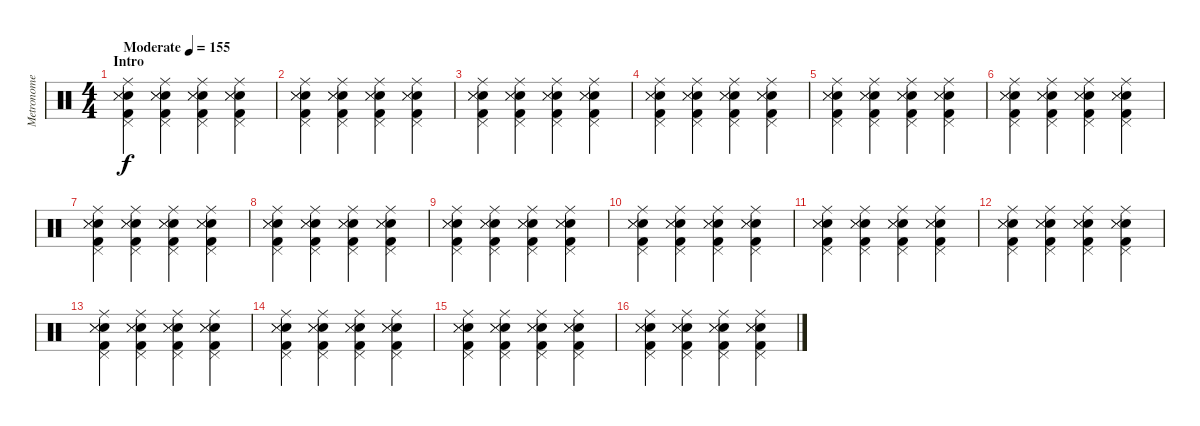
\track ("Metronome" "Metronome") {mute instrument percussion}
\staff {score}
\articulation defaults
\ts (4 4)
\section ("" "Intro")
\tempo (155 "Moderate")
\clef neutral
\ks c
("Ride (middle)" "Pedal Hi-Hat (hit)" "Electric Snare (hit)" "Snare (side stick) 3" "Metronome (hit)" "Kick (hit) 2").4{dy f} ("Ride (middle)" "Pedal Hi-Hat (hit)" "Electric Snare (hit)" "Snare (side stick) 3" "Metronome (hit)" "Kick (hit) 2").4 ("Ride (middle)" "Pedal Hi-Hat (hit)" "Electric Snare (hit)" "Snare (side stick) 3" "Metronome (hit)" "Kick (hit) 2").4 ("Ride (middle)" "Pedal Hi-Hat (hit)" "Electric Snare (hit)" "Snare (side stick) 3" "Metronome (hit)" "Kick (hit) 2").4 |
("Ride (middle)" "Pedal Hi-Hat (hit)" "Electric Snare (hit)" "Snare (side stick) 3" "Metronome (hit)" "Kick (hit) 2").4 ("Ride (middle)" "Pedal Hi-Hat (hit)" "Electric Snare (hit)" "Snare (side stick) 3" "Metronome (hit)" "Kick (hit) 2").4 ("Ride (middle)" "Pedal Hi-Hat (hit)" "Electric Snare (hit)" "Snare (side stick) 3" "Metronome (hit)" "Kick (hit) 2").4 ("Ride (middle)" "Pedal Hi-Hat (hit)" "Electric Snare (hit)" "Snare (side stick) 3" "Metronome (hit)" "Kick (hit) 2").4 |
("Ride (middle)" "Pedal Hi-Hat (hit)" "Electric Snare (hit)" "Snare (side stick) 3" "Metronome (hit)" "Kick (hit) 2").4 ("Ride (middle)" "Pedal Hi-Hat (hit)" "Electric Snare (hit)" "Snare (side stick) 3" "Metronome (hit)" "Kick (hit) 2").4 ("Ride (middle)" "Pedal Hi-Hat (hit)" "Electric Snare (hit)" "Snare (side stick) 3" "Metronome (hit)" "Kick (hit) 2").4 ("Ride (middle)" "Pedal Hi-Hat (hit)" "Electric Snare (hit)" "Snare (side stick) 3" "Metronome (hit)" "Kick (hit) 2").4 |
("Ride (middle)" "Pedal Hi-Hat (hit)" "Electric Snare (hit)" "Snare (side stick) 3" "Metronome (hit)" "Kick (hit) 2").4 ("Ride (middle)" "Pedal Hi-Hat (hit)" "Electric Snare (hit)" "Snare (side stick) 3" "Metronome (hit)" "Kick (hit) 2").4 ("Ride (middle)" "Pedal Hi-Hat (hit)" "Electric Snare (hit)" "Snare (side stick) 3" "Metronome (hit)" "Kick (hit) 2").4 ("Ride (middle)" "Pedal Hi-Hat (hit)" "Electric Snare (hit)" "Snare (side stick) 3" "Metronome (hit)" "Kick (hit) 2").4 |
("Ride (middle)" "Pedal Hi-Hat (hit)" "Electric Snare (hit)" "Snare (side stick) 3" "Metronome (hit)" "Kick (hit) 2").4 ("Ride (middle)" "Pedal Hi-Hat (hit)" "Electric Snare (hit)" "Snare (side stick) 3" "Metronome (hit)" "Kick (hit) 2").4 ("Ride (middle)" "Pedal Hi-Hat (hit)" "Electric Snare (hit)" "Snare (side stick) 3" "Metronome (hit)" "Kick (hit) 2").4 ("Ride (middle)" "Pedal Hi-Hat (hit)" "Electric Snare (hit)" "Snare (side stick) 3" "Metronome (hit)" "Kick (hit) 2").4 |
("Ride (middle)" "Pedal Hi-Hat (hit)" "Electric Snare (hit)" "Snare (side stick) 3" "Metronome (hit)" "Kick (hit) 2").4 ("Ride (middle)" "Pedal Hi-Hat (hit)" "Electric Snare (hit)" "Snare (side stick) 3" "Metronome (hit)" "Kick (hit) 2").4 ("Ride (middle)" "Pedal Hi-Hat (hit)" "Electric Snare (hit)" "Snare (side stick) 3" "Metronome (hit)" "Kick (hit) 2").4 ("Ride (middle)" "Pedal Hi-Hat (hit)" "Electric Snare (hit)" "Snare (side stick) 3" "Metronome (hit)" "Kick (hit) 2").4 |
("Ride (middle)" "Pedal Hi-Hat (hit)" "Electric Snare (hit)" "Snare (side stick) 3" "Metronome (hit)" "Kick (hit) 2").4 ("Ride (middle)" "Pedal Hi-Hat (hit)" "Electric Snare (hit)" "Snare (side stick) 3" "Metronome (hit)" "Kick (hit) 2").4 ("Ride (middle)" "Pedal Hi-Hat (hit)" "Electric Snare (hit)" "Snare (side stick) 3" "Metronome (hit)" "Kick (hit) 2").4 ("Ride (middle)" "Pedal Hi-Hat (hit)" "Electric Snare (hit)" "Snare (side stick) 3" "Metronome (hit)" "Kick (hit) 2").4 |
("Ride (middle)" "Pedal Hi-Hat (hit)" "Electric Snare (hit)" "Snare (side stick) 3" "Metronome (hit)" "Kick (hit) 2").4 ("Ride (middle)" "Pedal Hi-Hat (hit)" "Electric Snare (hit)" "Snare (side stick) 3" "Metronome (hit)" "Kick (hit) 2").4 ("Ride (middle)" "Pedal Hi-Hat (hit)" "Electric Snare (hit)" "Snare (side stick) 3" "Metronome (hit)" "Kick (hit) 2").4 ("Ride (middle)" "Pedal Hi-Hat (hit)" "Electric Snare (hit)" "Snare (side stick) 3" "Metronome (hit)" "Kick (hit) 2").4 |
("Ride (middle)" "Pedal Hi-Hat (hit)" "Electric Snare (hit)" "Snare (side stick) 3" "Metronome (hit)" "Kick (hit) 2").4 ("Ride (middle)" "Pedal Hi-Hat (hit)" "Electric Snare (hit)" "Snare (side stick) 3" "Metronome (hit)" "Kick (hit) 2").4 ("Ride (middle)" "Pedal Hi-Hat (hit)" "Electric Snare (hit)" "Snare (side stick) 3" "Metronome (hit)" "Kick (hit) 2").4 ("Ride (middle)" "Pedal Hi-Hat (hit)" "Electric Snare (hit)" "Snare (side stick) 3" "Metronome (hit)" "Kick (hit) 2").4 |
("Ride (middle)" "Pedal Hi-Hat (hit)" "Electric Snare (hit)" "Snare (side stick) 3" "Metronome (hit)" "Kick (hit) 2").4 ("Ride (middle)" "Pedal Hi-Hat (hit)" "Electric Snare (hit)" "Snare (side stick) 3" "Metronome (hit)" "Kick (hit) 2").4 ("Ride (middle)" "Pedal Hi-Hat (hit)" "Electric Snare (hit)" "Snare (side stick) 3" "Metronome (hit)" "Kick (hit) 2").4 ("Ride (middle)" "Pedal Hi-Hat (hit)" "Electric Snare (hit)" "Snare (side stick) 3" "Metronome (hit)" "Kick (hit) 2").4 |
("Ride (middle)" "Pedal Hi-Hat (hit)" "Electric Snare (hit)" "Snare (side stick) 3" "Metronome (hit)" "Kick (hit) 2").4 ("Ride (middle)" "Pedal Hi-Hat (hit)" "Electric Snare (hit)" "Snare (side stick) 3" "Metronome (hit)" "Kick (hit) 2").4 ("Ride (middle)" "Pedal Hi-Hat (hit)" "Electric Snare (hit)" "Snare (side stick) 3" "Metronome (hit)" "Kick (hit) 2").4 ("Ride (middle)" "Pedal Hi-Hat (hit)" "Electric Snare (hit)" "Snare (side stick) 3" "Metronome (hit)" "Kick (hit) 2").4 |
("Ride (middle)" "Pedal Hi-Hat (hit)" "Electric Snare (hit)" "Snare (side stick) 3" "Metronome (hit)" "Kick (hit) 2").4 ("Ride (middle)" "Pedal Hi-Hat (hit)" "Electric Snare (hit)" "Snare (side stick) 3" "Metronome (hit)" "Kick (hit) 2").4 ("Ride (middle)" "Pedal Hi-Hat (hit)" "Electric Snare (hit)" "Snare (side stick) 3" "Metronome (hit)" "Kick (hit) 2").4 ("Ride (middle)" "Pedal Hi-Hat (hit)" "Electric Snare (hit)" "Snare (side stick) 3" "Metronome (hit)" "Kick (hit) 2").4 |
("Ride (middle)" "Pedal Hi-Hat (hit)" "Electric Snare (hit)" "Snare (side stick) 3" "Metronome (hit)" "Kick (hit) 2").4 ("Ride (middle)" "Pedal Hi-Hat (hit)" "Electric Snare (hit)" "Snare (side stick) 3" "Metronome (hit)" "Kick (hit) 2").4 ("Ride (middle)" "Pedal Hi-Hat (hit)" "Electric Snare (hit)" "Snare (side stick) 3" "Metronome (hit)" "Kick (hit) 2").4 ("Ride (middle)" "Pedal Hi-Hat (hit)" "Electric Snare (hit)" "Snare (side stick) 3" "Metronome (hit)" "Kick (hit) 2").4 |
("Ride (middle)" "Pedal Hi-Hat (hit)" "Electric Snare (hit)" "Snare (side stick) 3" "Metronome (hit)" "Kick (hit) 2").4 ("Ride (middle)" "Pedal Hi-Hat (hit)" "Electric Snare (hit)" "Snare (side stick) 3" "Metronome (hit)" "Kick (hit) 2").4 ("Ride (middle)" "Pedal Hi-Hat (hit)" "Electric Snare (hit)" "Snare (side stick) 3" "Metronome (hit)" "Kick (hit) 2").4 ("Ride (middle)" "Pedal Hi-Hat (hit)" "Electric Snare (hit)" "Snare (side stick) 3" "Metronome (hit)" "Kick (hit) 2").4 |
("Ride (middle)" "Pedal Hi-Hat (hit)" "Electric Snare (hit)" "Snare (side stick) 3" "Metronome (hit)" "Kick (hit) 2").4 ("Ride (middle)" "Pedal Hi-Hat (hit)" "Electric Snare (hit)" "Snare (side stick) 3" "Metronome (hit)" "Kick (hit) 2").4 ("Ride (middle)" "Pedal Hi-Hat (hit)" "Electric Snare (hit)" "Snare (side stick) 3" "Metronome (hit)" "Kick (hit) 2").4 ("Ride (middle)" "Pedal Hi-Hat (hit)" "Electric Snare (hit)" "Snare (side stick) 3" "Metronome (hit)" "Kick (hit) 2").4 |
("Ride (middle)" "Pedal Hi-Hat (hit)" "Electric Snare (hit)" "Snare (side stick) 3" "Metronome (hit)" "Kick (hit) 2").4 ("Ride (middle)" "Pedal Hi-Hat (hit)" "Electric Snare (hit)" "Snare (side stick) 3" "Metronome (hit)" "Kick (hit) 2").4 ("Ride (middle)" "Pedal Hi-Hat (hit)" "Electric Snare (hit)" "Snare (side stick) 3" "Metronome (hit)" "Kick (hit) 2").4 ("Ride (middle)" "Pedal Hi-Hat (hit)" "Electric Snare (hit)" "Snare (side stick) 3" "Metronome (hit)" "Kick (hit) 2").4
